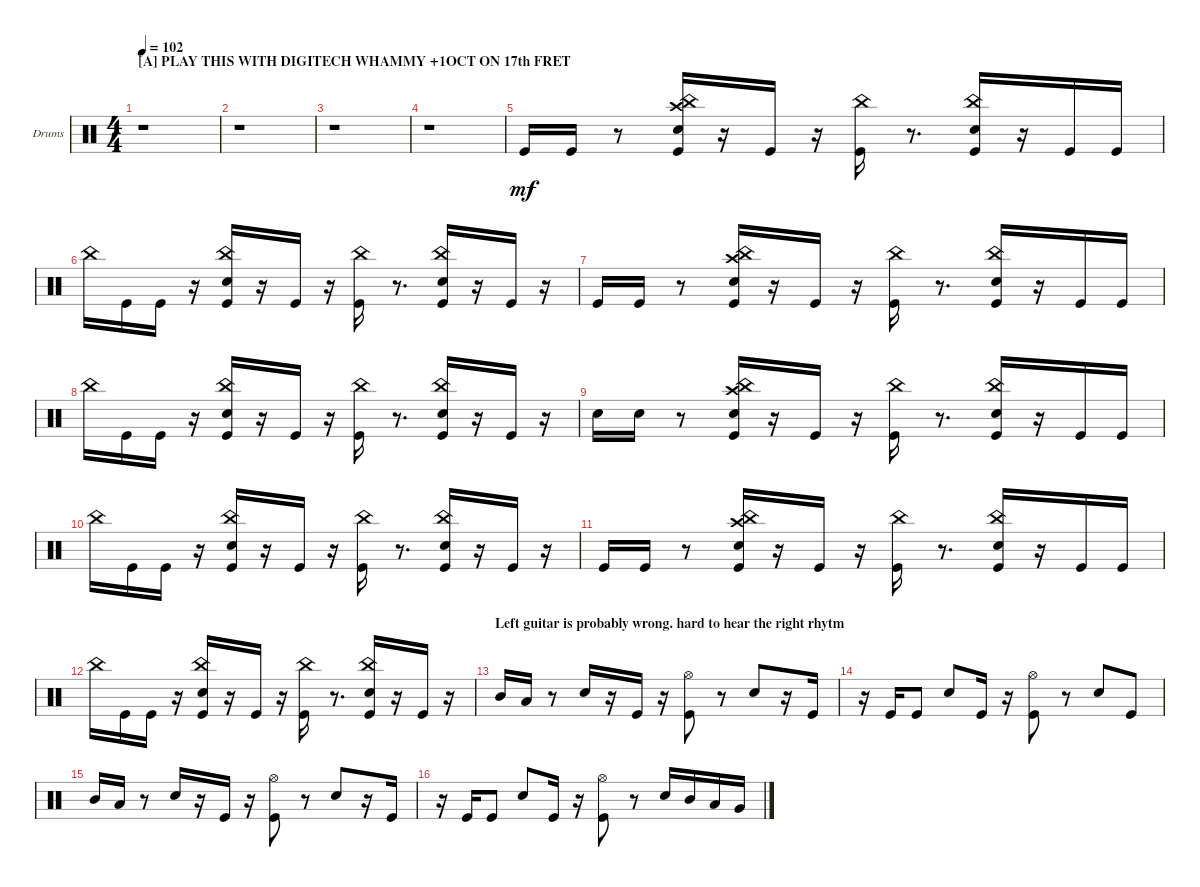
\defaultSystemsLayout 4
\bracketExtendMode groupsimilarinstruments
\firstSystemTrackNameOrientation horizontal
\otherSystemsTrackNameOrientation horizontal
\track ("Drumkit" "Drums") {instrument percussion}
\staff {score}
\articulation defaults
\ts (4 4)
\section ("A" "PLAY THIS WITH DIGITECH WHAMMY +1OCT ON 17th FRET")
\tempo 102
\clef neutral
\scale
0.472222
\ks c
r.1{dy mf} |
\scale
0.263889 r.1 |
\scale
0.263889 r.1 |
\scale
0.333333 r.1 |
\section ("" "")
\scale
0.333333 "Kick (hit)".16 "Kick (hit)".16 r.8 ("China (hit)" "Crash high (hit)" "Snare (hit) 2" "Kick (hit)").16 r.16 "Kick (hit)".16 r.16 ("China (hit)" "Kick (hit)").16 r.8{d} ("China (hit)" "Snare (hit) 2" "Kick (hit)").16 r.16 "Kick (hit)".16 "Kick (hit)".16 |
\scale
0.333333 "China (hit)".16 "Kick (hit)".16 "Kick (hit)".16 r.16 ("China (hit)" "Snare (hit) 2" "Kick (hit)").16 r.16 "Kick (hit)".16 r.16 ("China (hit)" "Kick (hit)").16 r.8{d} ("China (hit)" "Snare (hit) 2" "Kick (hit)").16 r.16 "Kick (hit)".16 r.16 |
\scale
0.333333 "Kick (hit)".16 "Kick (hit)".16 r.8 ("China (hit)" "Crash high (hit)" "Snare (hit) 2" "Kick (hit)").16 r.16 "Kick (hit)".16 r.16 ("China (hit)" "Kick (hit)").16 r.8{d} ("China (hit)" "Snare (hit) 2" "Kick (hit)").16 r.16 "Kick (hit)".16 "Kick (hit)".16 |
\scale
0.333333 "China (hit)".16 "Kick (hit)".16 "Kick (hit)".16 r.16 ("China (hit)" "Snare (hit) 2" "Kick (hit)").16 r.16 "Kick (hit)".16 r.16 ("China (hit)" "Kick (hit)").16 r.8{d} ("China (hit)" "Snare (hit) 2" "Kick (hit)").16 r.16 "Kick (hit)".16 r.16 |
\scale
0.333333 "Snare (hit) 2".16 "Snare (hit) 2".16 r.8 ("China (hit)" "Crash high (hit)" "Snare (hit) 2" "Kick (hit)").16 r.16 "Kick (hit)".16 r.16 ("China (hit)" "Kick (hit)").16 r.8{d} ("China (hit)" "Snare (hit) 2" "Kick (hit)").16 r.16 "Kick (hit)".16 "Kick (hit)".16 |
\scale
0.333333 "China (hit)".16 "Kick (hit)".16 "Kick (hit)".16 r.16 ("China (hit)" "Snare (hit) 2" "Kick (hit)").16 r.16 "Kick (hit)".16 r.16 ("China (hit)" "Kick (hit)").16 r.8{d} ("China (hit)" "Snare (hit) 2" "Kick (hit)").16 r.16 "Kick (hit)".16 r.16 |
\scale
0.333333 "Kick (hit)".16 "Kick (hit)".16 r.8 ("China (hit)" "Crash high (hit)" "Snare (hit) 2" "Kick (hit)").16 r.16 "Kick (hit)".16 r.16 ("China (hit)" "Kick (hit)").16 r.8{d} ("China (hit)" "Snare (hit) 2" "Kick (hit)").16 r.16 "Kick (hit)".16 "Kick (hit)".16 |
\scale
0.333333 "China (hit)".16 "Kick (hit)".16 "Kick (hit)".16 r.16 ("China (hit)" "Snare (hit) 2" "Kick (hit)").16 r.16 "Kick (hit)".16 r.16 ("China (hit)" "Kick (hit)").16 r.8{d} ("China (hit)" "Snare (hit) 2" "Kick (hit)").16 r.16 "Kick (hit)".16 r.16 |
\section ("" "Left guitar is probably wrong. hard to hear the right rhytm")
\scale
0.333333 "Mid Tom (hit)".16 "Low Tom (hit)".16 r.8 "Snare (hit) 2".16 r.16 "Kick (hit)".16 r.16 ("Hi-Hat (open)" "Kick (hit)").8 r.8 "Snare (hit) 2".8 r.16 "Kick (hit)".16 |
\scale
0.333333 r.16 "Kick (hit)".16 "Kick (hit)".8 "Snare (hit) 2".8 "Kick (hit)".16 r.16 ("Hi-Hat (open)" "Kick (hit)").8 r.8 "Snare (hit) 2".8 "Kick (hit)".8 |
\scale
0.333333 "Mid Tom (hit)".16 "Low Tom (hit)".16 r.8 "Snare (hit) 2".16 r.16 "Kick (hit)".16 r.16 ("Hi-Hat (open)" "Kick (hit)").8 r.8 "Snare (hit) 2".8 r.16 "Kick (hit)".16 |
\scale
0.333333 r.16 "Kick (hit)".16 "Kick (hit)".8 "Snare (hit) 2".8 "Kick (hit)".16 r.16 ("Hi-Hat (open)" "Kick (hit)").8 r.8 "Snare (hit) 2".16 "Mid Tom (hit)".16 "Low Tom (hit)".16 "Very Low Tom (hit)".16
